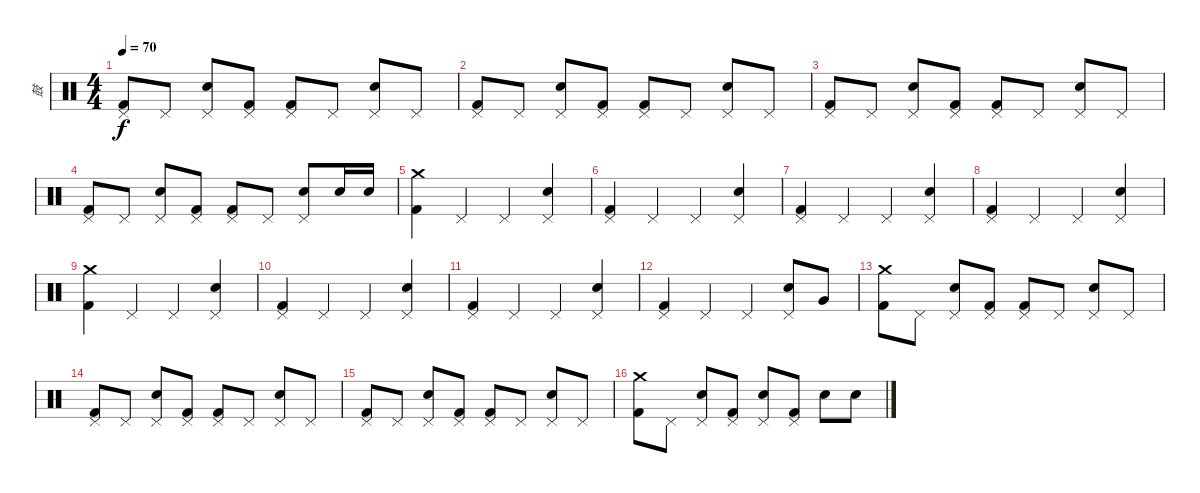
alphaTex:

\track ("鼓" "鼓") {instrument percussion}
\staff {score}
\articulation defaults
\ts (4 4)
\tempo 70
\clef neutral
\ks c
("Pedal Hi-Hat (hit)" "Kick (hit) 2").8{dy f} "Pedal Hi-Hat (hit)".8 ("Pedal Hi-Hat (hit)" "Snare (hit) 2").8 ("Pedal Hi-Hat (hit)" "Kick (hit) 2").8 ("Pedal Hi-Hat (hit)" "Kick (hit) 2").8 "Pedal Hi-Hat (hit)".8 ("Pedal Hi-Hat (hit)" "Snare (hit) 2").8 "Pedal Hi-Hat (hit)".8 |
("Pedal Hi-Hat (hit)" "Kick (hit) 2").8 "Pedal Hi-Hat (hit)".8 ("Pedal Hi-Hat (hit)" "Snare (hit) 2").8 ("Pedal Hi-Hat (hit)" "Kick (hit) 2").8 ("Pedal Hi-Hat (hit)" "Kick (hit) 2").8 "Pedal Hi-Hat (hit)".8 ("Pedal Hi-Hat (hit)" "Snare (hit) 2").8 "Pedal Hi-Hat (hit)".8 |
("Pedal Hi-Hat (hit)" "Kick (hit) 2").8 "Pedal Hi-Hat (hit)".8 ("Pedal Hi-Hat (hit)" "Snare (hit) 2").8 ("Pedal Hi-Hat (hit)" "Kick (hit) 2").8 ("Pedal Hi-Hat (hit)" "Kick (hit) 2").8 "Pedal Hi-Hat (hit)".8 ("Pedal Hi-Hat (hit)" "Snare (hit) 2").8 "Pedal Hi-Hat (hit)".8 |
("Pedal Hi-Hat (hit)" "Kick (hit) 2").8 "Pedal Hi-Hat (hit)".8 ("Pedal Hi-Hat (hit)" "Snare (hit) 2").8 ("Pedal Hi-Hat (hit)" "Kick (hit) 2").8 ("Pedal Hi-Hat (hit)" "Kick (hit) 2").8 "Pedal Hi-Hat (hit)".8 ("Pedal Hi-Hat (hit)" "Snare (hit) 2").8 "Snare (hit) 2".16 "Snare (hit) 2".16 |
("Crash medium (hit)" "Kick (hit) 2").4 "Pedal Hi-Hat (hit)".4 "Pedal Hi-Hat (hit)".4 ("Pedal Hi-Hat (hit)" "Snare (hit) 2").4 |
("Pedal Hi-Hat (hit)" "Kick (hit) 2").4 "Pedal Hi-Hat (hit)".4 "Pedal Hi-Hat (hit)".4 ("Pedal Hi-Hat (hit)" "Snare (hit) 2").4 |
("Pedal Hi-Hat (hit)" "Kick (hit) 2").4 "Pedal Hi-Hat (hit)".4 "Pedal Hi-Hat (hit)".4 ("Pedal Hi-Hat (hit)" "Snare (hit) 2").4 |
("Pedal Hi-Hat (hit)" "Kick (hit) 2").4 "Pedal Hi-Hat (hit)".4 "Pedal Hi-Hat (hit)".4 ("Pedal Hi-Hat (hit)" "Snare (hit) 2").4 |
("Crash medium (hit)" "Kick (hit) 2").4 "Pedal Hi-Hat (hit)".4 "Pedal Hi-Hat (hit)".4 ("Pedal Hi-Hat (hit)" "Snare (hit) 2").4 |
("Pedal Hi-Hat (hit)" "Kick (hit) 2").4 "Pedal Hi-Hat (hit)".4 "Pedal Hi-Hat (hit)".4 ("Pedal Hi-Hat (hit)" "Snare (hit) 2").4 |
("Pedal Hi-Hat (hit)" "Kick (hit) 2").4 "Pedal Hi-Hat (hit)".4 "Pedal Hi-Hat (hit)".4 ("Pedal Hi-Hat (hit)" "Snare (hit) 2").4 |
("Pedal Hi-Hat (hit)" "Kick (hit) 2").4 "Pedal Hi-Hat (hit)".4 "Pedal Hi-Hat (hit)".4 ("Pedal Hi-Hat (hit)" "Snare (hit) 2").8 "Very Low Tom (hit)".8 |
("Crash medium (hit)" "Kick (hit) 2").8 "Pedal Hi-Hat (hit)".8 ("Pedal Hi-Hat (hit)" "Snare (hit) 2").8 ("Pedal Hi-Hat (hit)" "Kick (hit) 2").8 ("Pedal Hi-Hat (hit)" "Kick (hit) 2").8 "Pedal Hi-Hat (hit)".8 ("Pedal Hi-Hat (hit)" "Snare (hit) 2").8 "Pedal Hi-Hat (hit)".8 |
("Pedal Hi-Hat (hit)" "Kick (hit) 2").8 "Pedal Hi-Hat (hit)".8 ("Pedal Hi-Hat (hit)" "Snare (hit) 2").8 ("Pedal Hi-Hat (hit)" "Kick (hit) 2").8 ("Pedal Hi-Hat (hit)" "Kick (hit) 2").8 "Pedal Hi-Hat (hit)".8 ("Pedal Hi-Hat (hit)" "Snare (hit) 2").8 "Pedal Hi-Hat (hit)".8 |
("Pedal Hi-Hat (hit)" "Kick (hit) 2").8 "Pedal Hi-Hat (hit)".8 ("Pedal Hi-Hat (hit)" "Snare (hit) 2").8 ("Pedal Hi-Hat (hit)" "Kick (hit) 2").8 ("Pedal Hi-Hat (hit)" "Kick (hit) 2").8 "Pedal Hi-Hat (hit)".8 ("Pedal Hi-Hat (hit)" "Snare (hit) 2").8 "Pedal Hi-Hat (hit)".8 |
("Crash medium (hit)" "Kick (hit) 2").8 "Pedal Hi-Hat (hit)".8 ("Pedal Hi-Hat (hit)" "Snare (hit) 2").8 ("Pedal Hi-Hat (hit)" "Kick (hit) 2").8 ("Pedal Hi-Hat (hit)" "Snare (hit) 2").8 ("Pedal Hi-Hat (hit)" "Kick (hit) 2").8 "Snare (hit) 2".8 "Snare (hit) 2".8
